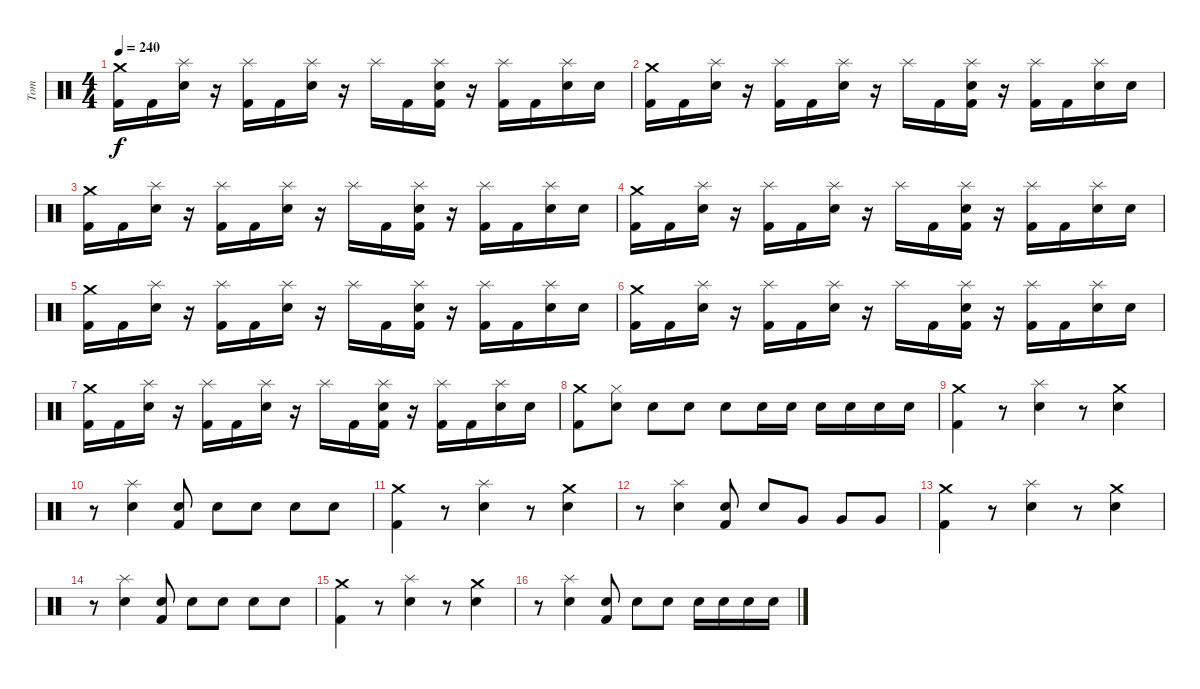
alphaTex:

\track ("Tom" "Tom") {instrument percussion}
\staff {score}
\articulation defaults
\ts (4 4)
\tempo 240
\clef neutral
\ks c
("Crash medium (hit)" "Kick (hit) 2").16{dy f} "Kick (hit) 2".16 ("Splash (hit)" "Electric Snare (hit)").16 r.16 ("Splash (hit)" "Kick (hit) 2").16 "Kick (hit) 2".16 ("Splash (hit)" "Electric Snare (hit)").16 r.16 "Splash (hit)".16 "Kick (hit) 2".16 ("Splash (hit)" "Electric Snare (hit)" "Kick (hit) 2").16 r.16 ("Splash (hit)" "Kick (hit) 2").16 "Kick (hit) 2".16 ("Splash (hit)" "Electric Snare (hit)").16 "Electric Snare (hit)".16 |
("Crash medium (hit)" "Kick (hit) 2").16 "Kick (hit) 2".16 ("Splash (hit)" "Electric Snare (hit)").16 r.16 ("Splash (hit)" "Kick (hit) 2").16 "Kick (hit) 2".16 ("Splash (hit)" "Electric Snare (hit)").16 r.16 "Splash (hit)".16 "Kick (hit) 2".16 ("Splash (hit)" "Electric Snare (hit)" "Kick (hit) 2").16 r.16 ("Splash (hit)" "Kick (hit) 2").16 "Kick (hit) 2".16 ("Splash (hit)" "Electric Snare (hit)").16 "Electric Snare (hit)".16 |
("Crash medium (hit)" "Kick (hit) 2").16 "Kick (hit) 2".16 ("Splash (hit)" "Electric Snare (hit)").16 r.16 ("Splash (hit)" "Kick (hit) 2").16 "Kick (hit) 2".16 ("Splash (hit)" "Electric Snare (hit)").16 r.16 "Splash (hit)".16 "Kick (hit) 2".16 ("Splash (hit)" "Electric Snare (hit)" "Kick (hit) 2").16 r.16 ("Splash (hit)" "Kick (hit) 2").16 "Kick (hit) 2".16 ("Splash (hit)" "Electric Snare (hit)").16 "Electric Snare (hit)".16 |
("Crash medium (hit)" "Kick (hit) 2").16 "Kick (hit) 2".16 ("Splash (hit)" "Electric Snare (hit)").16 r.16 ("Splash (hit)" "Kick (hit) 2").16 "Kick (hit) 2".16 ("Splash (hit)" "Electric Snare (hit)").16 r.16 "Splash (hit)".16 "Kick (hit) 2".16 ("Splash (hit)" "Electric Snare (hit)" "Kick (hit) 2").16 r.16 ("Splash (hit)" "Kick (hit) 2").16 "Kick (hit) 2".16 ("Splash (hit)" "Electric Snare (hit)").16 "Electric Snare (hit)".16 |
("Crash medium (hit)" "Kick (hit) 2").16 "Kick (hit) 2".16 ("Splash (hit)" "Electric Snare (hit)").16 r.16 ("Splash (hit)" "Kick (hit) 2").16 "Kick (hit) 2".16 ("Splash (hit)" "Electric Snare (hit)").16 r.16 "Splash (hit)".16 "Kick (hit) 2".16 ("Splash (hit)" "Electric Snare (hit)" "Kick (hit) 2").16 r.16 ("Splash (hit)" "Kick (hit) 2").16 "Kick (hit) 2".16 ("Splash (hit)" "Electric Snare (hit)").16 "Electric Snare (hit)".16 |
("Crash medium (hit)" "Kick (hit) 2").16 "Kick (hit) 2".16 ("Splash (hit)" "Electric Snare (hit)").16 r.16 ("Splash (hit)" "Kick (hit) 2").16 "Kick (hit) 2".16 ("Splash (hit)" "Electric Snare (hit)").16 r.16 "Splash (hit)".16 "Kick (hit) 2".16 ("Splash (hit)" "Electric Snare (hit)" "Kick (hit) 2").16 r.16 ("Splash (hit)" "Kick (hit) 2").16 "Kick (hit) 2".16 ("Splash (hit)" "Electric Snare (hit)").16 "Electric Snare (hit)".16 |
("Crash medium (hit)" "Kick (hit) 2").16 "Kick (hit) 2".16 ("Splash (hit)" "Electric Snare (hit)").16 r.16 ("Splash (hit)" "Kick (hit) 2").16 "Kick (hit) 2".16 ("Splash (hit)" "Electric Snare (hit)").16 r.16 "Splash (hit)".16 "Kick (hit) 2".16 ("Splash (hit)" "Electric Snare (hit)" "Kick (hit) 2").16 r.16 ("Splash (hit)" "Kick (hit) 2").16 "Kick (hit) 2".16 ("Splash (hit)" "Electric Snare (hit)").16 "Electric Snare (hit)".16 |
("Crash medium (hit)" "Kick (hit) 2").8 ("Hi-Hat (closed)" "Electric Snare (hit)").8 "Electric Snare (hit)".8 "Electric Snare (hit)".8 "Electric Snare (hit)".8 "Electric Snare (hit)".16 "Electric Snare (hit)".16 "Electric Snare (hit)".16 "Electric Snare (hit)".16 "Electric Snare (hit)".16 "Electric Snare (hit)".16 |
("Crash medium (hit)" "Kick (hit) 2").4 r.8 ("Splash (hit)" "Electric Snare (hit)").4 r.8 ("Crash medium (hit)" "Electric Snare (hit)").4 |
r.8 ("Splash (hit)" "Electric Snare (hit)").4 ("Electric Snare (hit)" "Kick (hit) 2").8 "Electric Snare (hit)".8 "Electric Snare (hit)".8 "Electric Snare (hit)".8 "Electric Snare (hit)".8 |
("Crash medium (hit)" "Kick (hit) 2").4 r.8 ("Splash (hit)" "Electric Snare (hit)").4 r.8 ("Crash medium (hit)" "Electric Snare (hit)").4 |
r.8 ("Splash (hit)" "Electric Snare (hit)").4 ("Electric Snare (hit)" "Kick (hit) 2").8 "Electric Snare (hit)".8 "Very Low Tom (hit)".8 "Very Low Tom (hit)".8 "Very Low Tom (hit)".8 |
("Crash medium (hit)" "Kick (hit) 2").4 r.8 ("Splash (hit)" "Electric Snare (hit)").4 r.8 ("Crash medium (hit)" "Electric Snare (hit)").4 |
r.8 ("Splash (hit)" "Electric Snare (hit)").4 ("Electric Snare (hit)" "Kick (hit) 2").8 "Electric Snare (hit)".8 "Electric Snare (hit)".8 "Electric Snare (hit)".8 "Electric Snare (hit)".8 |
("Crash medium (hit)" "Kick (hit) 2").4 r.8 ("Splash (hit)" "Electric Snare (hit)").4 r.8 ("Crash medium (hit)" "Electric Snare (hit)").4 |
r.8 ("Splash (hit)" "Electric Snare (hit)").4 ("Electric Snare (hit)" "Kick (hit) 2").8 "Electric Snare (hit)".8 "Electric Snare (hit)".8 "Electric Snare (hit)".16 "Electric Snare (hit)".16 "Electric Snare (hit)".16 "Electric Snare (hit)".16
